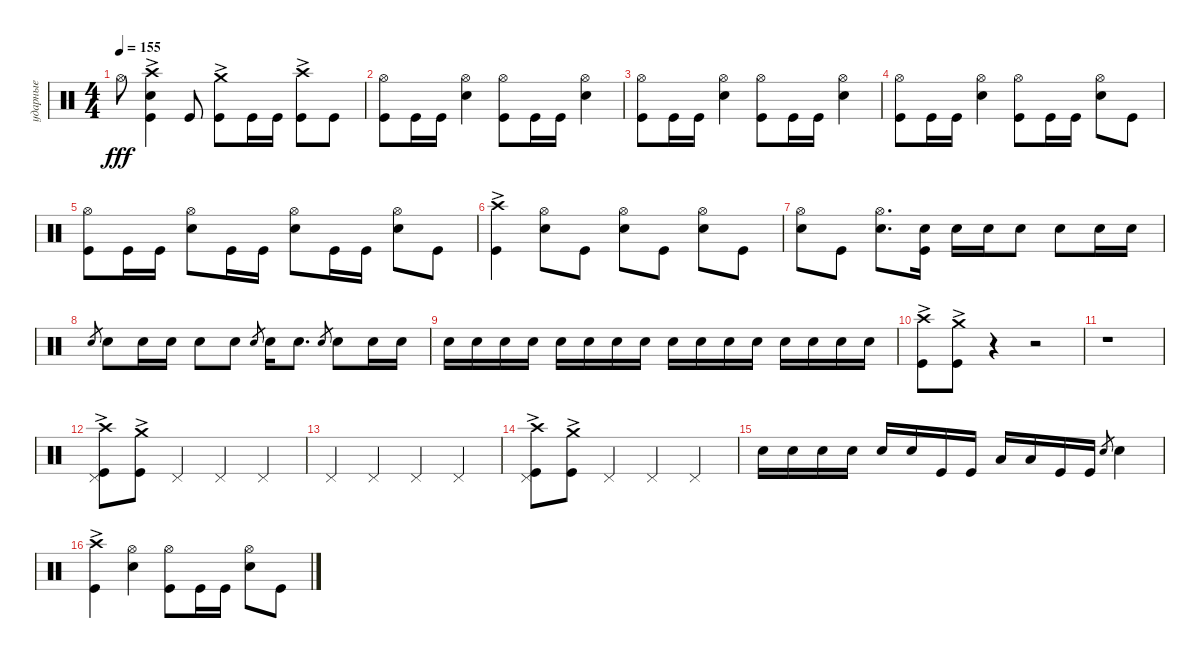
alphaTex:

\track ("ударные" "ударные") {instrument percussion}
\staff {score}
\articulation defaults
\ts (4 4)
\tempo 155
\clef neutral
\ks aminor "Hi-Hat (open)".8{dy fff}
("Kick (hit)" "Snare (hit) 2" "Crash high (hit)"{ac}).4 "Kick (hit)".8 ("Kick (hit)" "Crash medium (hit)"{ac}).8 "Kick (hit)".16 "Kick (hit)".16 ("Kick (hit)" "Crash high (hit)"{ac}).8 "Kick (hit)".8 |
("Kick (hit)" "Hi-Hat (open)").8 "Kick (hit)".16 "Kick (hit)".16 ("Snare (hit) 2" "Hi-Hat (open)").4 ("Kick (hit)" "Hi-Hat (open)").8 "Kick (hit)".16 "Kick (hit)".16 ("Snare (hit) 2" "Hi-Hat (open)").4 |
("Kick (hit)" "Hi-Hat (open)").8 "Kick (hit)".16 "Kick (hit)".16 ("Snare (hit) 2" "Hi-Hat (open)").4 ("Kick (hit)" "Hi-Hat (open)").8 "Kick (hit)".16 "Kick (hit)".16 ("Snare (hit) 2" "Hi-Hat (open)").4 |
("Kick (hit)" "Hi-Hat (open)").8 "Kick (hit)".16 "Kick (hit)".16 ("Snare (hit) 2" "Hi-Hat (open)").4 ("Kick (hit)" "Hi-Hat (open)").8 "Kick (hit)".16 "Kick (hit)".16 ("Snare (hit) 2" "Hi-Hat (open)").8 "Kick (hit)".8 |
("Kick (hit)" "Hi-Hat (open)").8 "Kick (hit)".16 "Kick (hit)".16 ("Snare (hit) 2" "Hi-Hat (open)").8 "Kick (hit)".16 "Kick (hit)".16 ("Snare (hit) 2" "Hi-Hat (open)").8 "Kick (hit)".16 "Kick (hit)".16 ("Snare (hit) 2" "Hi-Hat (open)").8 "Kick (hit)".8 |
("Kick (hit)" "Crash high (hit)"{ac}).4 ("Snare (hit) 2" "Hi-Hat (open)").8 "Kick (hit)".8 ("Snare (hit) 2" "Hi-Hat (open)").8 "Kick (hit)".8 ("Snare (hit) 2" "Hi-Hat (open)").8 "Kick (hit)".8 |
("Snare (hit) 2" "Hi-Hat (open)").8 "Kick (hit)".8 ("Snare (hit) 2" "Hi-Hat (open)").8{d} ("Snare (hit) 2" "Kick (hit)").16 "Snare (hit) 2".16 "Snare (hit) 2".16 "Snare (hit) 2".8 "Snare (hit) 2".8 "Snare (hit) 2".16 "Snare (hit) 2".16 |
"Snare (hit) 2"{h}.8{gr} "Snare (hit) 2".8 "Snare (hit) 2".16 "Snare (hit) 2".16 "Snare (hit) 2".8 "Snare (hit) 2".8 "Snare (hit) 2"{h}.8{gr} "Snare (hit) 2".16 "Snare (hit) 2".8{d} "Snare (hit) 2"{h}.8{gr} "Snare (hit) 2".8 "Snare (hit) 2".16 "Snare (hit) 2".16 |
"Snare (hit) 2".16 "Snare (hit) 2".16 "Snare (hit) 2".16 "Snare (hit) 2".16 "Snare (hit) 2".16 "Snare (hit) 2".16 "Snare (hit) 2".16 "Snare (hit) 2".16 "Snare (hit) 2".16 "Snare (hit) 2".16 "Snare (hit) 2".16 "Snare (hit) 2".16 "Snare (hit) 2".16 "Snare (hit) 2".16 "Snare (hit) 2".16 "Snare (hit) 2".16 |
("Kick (hit)" "Crash high (hit)"{ac}).8 ("Kick (hit)" "Crash medium (hit)"{ac}).8 r.4 r.2 |
r.1 |
("Kick (hit)" "Crash high (hit)"{ac} "Pedal Hi-Hat (hit)").8 ("Crash medium (hit)"{ac} "Kick (hit)").8 "Pedal Hi-Hat (hit)".4 "Pedal Hi-Hat (hit)".4 "Pedal Hi-Hat (hit)".4 |
"Pedal Hi-Hat (hit)".4 "Pedal Hi-Hat (hit)".4 "Pedal Hi-Hat (hit)".4 "Pedal Hi-Hat (hit)".4 |
("Kick (hit)" "Crash high (hit)"{ac} "Pedal Hi-Hat (hit)").8 ("Crash medium (hit)"{ac} "Kick (hit)").8 "Pedal Hi-Hat (hit)".4 "Pedal Hi-Hat (hit)".4 "Pedal Hi-Hat (hit)".4 |
"Snare (hit) 2".16 "Snare (hit) 2".16 "Snare (hit) 2".16 "Snare (hit) 2".16 "Snare (hit) 2".16 "Snare (hit) 2".16 "Kick (hit)".16 "Kick (hit)".16 "Low Tom (hit)".16 "Low Tom (hit)".16 "Kick (hit)".16 "Kick (hit)".16 "Snare (hit) 2"{h}.8{gr} "Snare (hit) 2".4 |
("Kick (hit)" "Crash high (hit)"{ac}).4 ("Snare (hit) 2" "Hi-Hat (open)").4 ("Kick (hit)" "Hi-Hat (open)").8 "Kick (hit)".16 "Kick (hit)".16 ("Snare (hit) 2" "Hi-Hat (open)").8 "Kick (hit)".8
